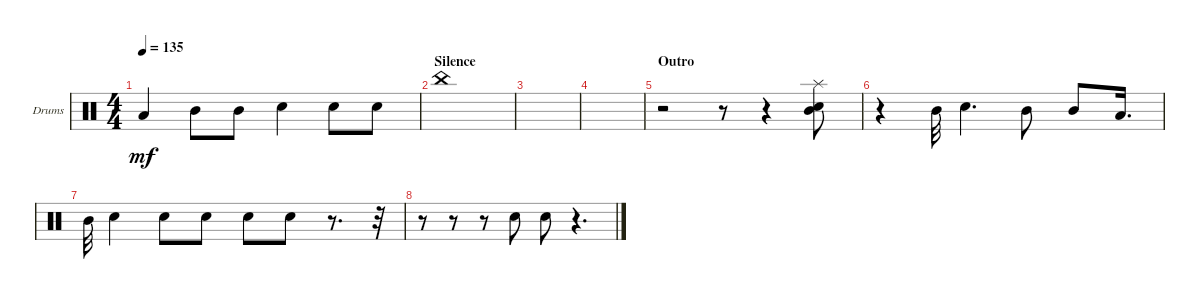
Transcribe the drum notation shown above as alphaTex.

\defaultSystemsLayout 4
\bracketExtendMode groupsimilarinstruments
\firstSystemTrackNameOrientation horizontal
\otherSystemsTrackNameOrientation horizontal
\track ("Drum" "Drums") {instrument percussion}
\staff {score}
\articulation defaults
\ts (4 4)
\tempo 135
\clef neutral
\scale
0.333333
\ks c "Low Tom (hit)".4{dy mf} "Mid Tom (hit)".8 "Mid Tom (hit)".8 "Snare (hit) 2".4 "Snare (hit) 2".8 "Snare (hit) 2".8
|
\section ("" "Silence")
\scale
0.333333 "China (hit)".1 |
\scale
0.333333 |
\scale
0.333333 |
\section ("" "Outro")
\scale
0.333333 r.2 r.8 r.4 ("Splash (hit)" "Snare (hit) 2" "Mid Tom (hit)").8 |
r.4 "Mid Tom (hit)".32 "Snare (hit) 2".4{d} "Mid Tom (hit)".8 "Mid Tom (hit)".8 "Low Tom (hit)".16{d} |
"Mid Tom (hit)".32 "Snare (hit) 2".4 "Snare (hit) 2".8 "Snare (hit) 2".8 "Snare (hit) 2".8 "Snare (hit) 2".8 r.8{d} r.32 |
r.8 r.8 r.8 "Snare (hit) 2".8 "Snare (hit) 2".8 r.4{d}
